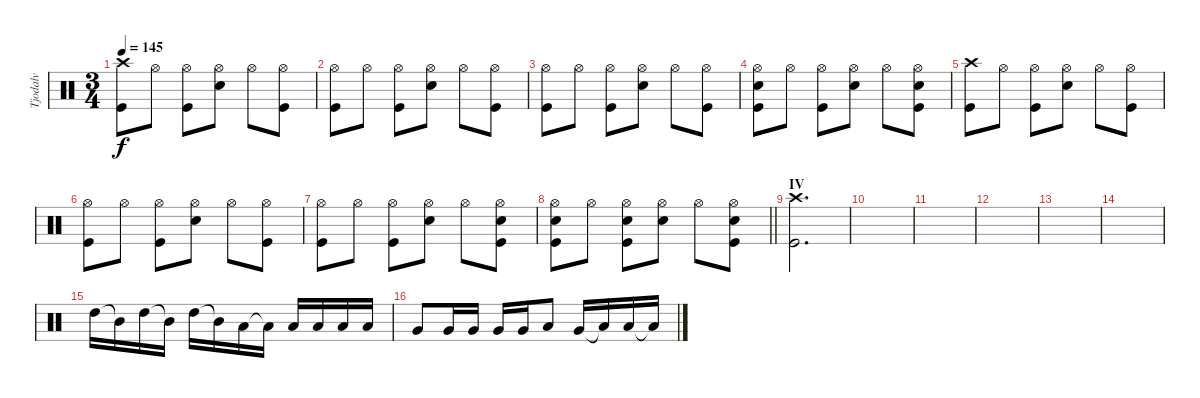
\track ("Tjodalv" "Tjodalv") {instrument percussion}
\staff {score}
\articulation defaults
\ts (3 4)
\tempo 145
\clef neutral
\ks c
("Crash high (hit)" "Kick (hit)").8{dy f} "Hi-Hat (open)".8 ("Hi-Hat (open)" "Kick (hit)").8 ("Hi-Hat (open)" "Snare (hit) 2").8 "Hi-Hat (open)".8 ("Hi-Hat (open)" "Kick (hit)").8 |
("Hi-Hat (open)" "Kick (hit)").8 "Hi-Hat (open)".8 ("Hi-Hat (open)" "Kick (hit)").8 ("Hi-Hat (open)" "Snare (hit) 2").8 "Hi-Hat (open)".8 ("Hi-Hat (open)" "Kick (hit)").8 |
("Hi-Hat (open)" "Kick (hit)").8 "Hi-Hat (open)".8 ("Hi-Hat (open)" "Kick (hit)").8 ("Hi-Hat (open)" "Snare (hit) 2").8 "Hi-Hat (open)".8 ("Hi-Hat (open)" "Kick (hit)").8 |
("Hi-Hat (open)" "Snare (hit) 2" "Kick (hit)").8 "Hi-Hat (open)".8 ("Hi-Hat (open)" "Kick (hit)").8 ("Hi-Hat (open)" "Snare (hit) 2").8 "Hi-Hat (open)".8 ("Hi-Hat (open)" "Snare (hit) 2" "Kick (hit)").8 |
("Crash high (hit)" "Kick (hit)").8 "Hi-Hat (open)".8 ("Hi-Hat (open)" "Kick (hit)").8 ("Hi-Hat (open)" "Snare (hit) 2").8 "Hi-Hat (open)".8 ("Hi-Hat (open)" "Kick (hit)").8 |
("Hi-Hat (open)" "Kick (hit)").8 "Hi-Hat (open)".8 ("Hi-Hat (open)" "Kick (hit)").8 ("Hi-Hat (open)" "Snare (hit) 2").8 "Hi-Hat (open)".8 ("Hi-Hat (open)" "Kick (hit)").8 |
("Hi-Hat (open)" "Kick (hit)").8 "Hi-Hat (open)".8 ("Hi-Hat (open)" "Kick (hit)").8 ("Hi-Hat (open)" "Snare (hit) 2").8 "Hi-Hat (open)".8 ("Hi-Hat (open)" "Snare (hit) 2" "Kick (hit)").8 |
\barLineRight lightlight
("Hi-Hat (open)" "Snare (hit) 2" "Kick (hit)").8 "Hi-Hat (open)".8 ("Hi-Hat (open)" "Snare (hit) 2" "Kick (hit)").8 ("Hi-Hat (open)" "Snare (hit) 2").8 "Hi-Hat (open)".8 ("Hi-Hat (open)" "Snare (hit) 2" "Kick (hit)").8 |
\section ("" "IV")
("Crash high (hit)" "Kick (hit)").2{d} |
|
|
|
|
|
"High Tom (hit)".16 "Mid Tom (hit)"{t}.16 "High Tom (hit)".16 "Mid Tom (hit)"{t}.16 "High Tom (hit)".16 "Mid Tom (hit)"{t}.16 "Low Tom (hit)".16 "Low Tom (hit)"{t}.16 "Low Tom (hit)".16 "Low Tom (hit)".16 "Low Tom (hit)".16 "Low Tom (hit)".16 |
"Very Low Tom (hit)".8 "Very Low Tom (hit)".16 "Very Low Tom (hit)".16 "Very Low Tom (hit)".16 "Very Low Tom (hit)".16 "Low Floor Tom (hit)".8 "Very Low Tom (hit)".16 "Low Floor Tom (hit)"{t}.16 "Low Floor Tom (hit)".16 "Low Floor Tom (hit)"{t}.16
